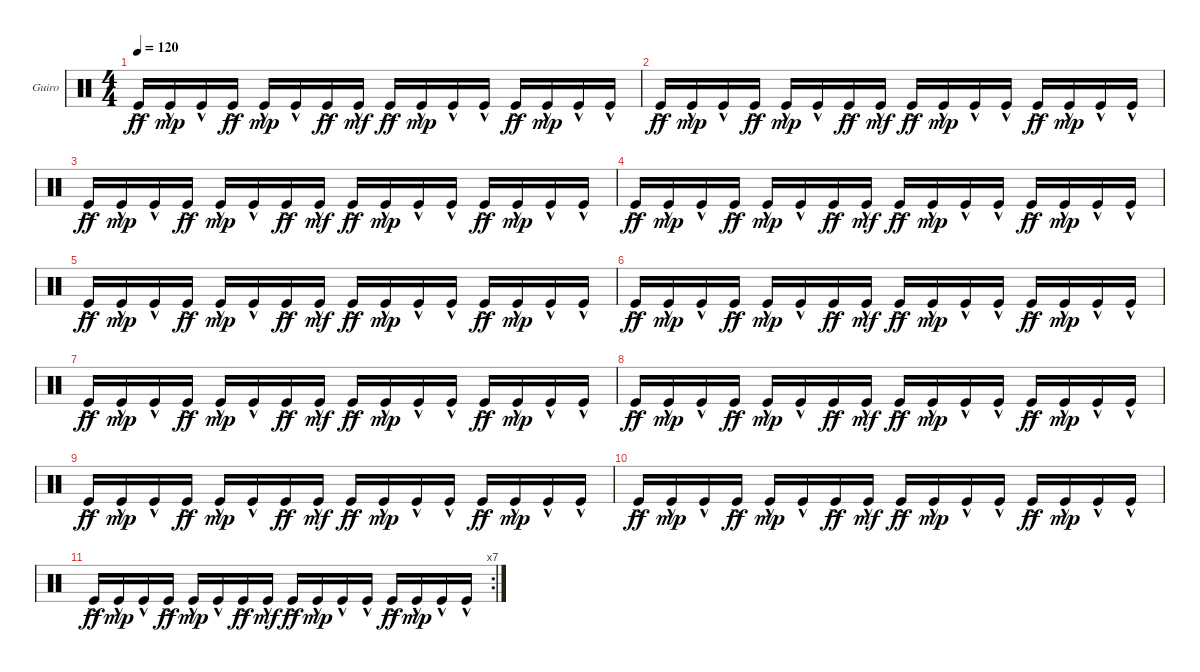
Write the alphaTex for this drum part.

\defaultSystemsLayout 4
\bracketExtendMode groupsimilarinstruments
\firstSystemTrackNameOrientation horizontal
\otherSystemsTrackNameOrientation horizontal
\track ("Guiro" "Guiro") {instrument percussion}
\staff {score}
\articulation defaults
\ts (4 4)
\tempo 120
\clef neutral
\scale
0.333333
\ks c "Kick (hit)"{ac}.16{dy ff} "Kick (hit)"{hac}.16{dy mp} "Kick (hit)"{hac}.16 "Kick (hit)"{ac}.16{dy ff} "Kick (hit)"{hac}.16{dy mp} "Kick (hit)"{hac}.16 "Kick (hit)"{ac}.16{dy ff} "Kick (hit)"{hac}.16{dy mf} "Kick (hit)"{ac}.16{dy ff} "Kick (hit)"{hac}.16{dy mp} "Kick (hit)"{hac}.16 "Kick (hit)"{hac}.16 "Kick (hit)"{ac}.16{dy ff} "Kick (hit)"{hac}.16{dy mp} "Kick (hit)"{hac}.16 "Kick (hit)"{hac}.16
|
\scale
0.333333 "Kick (hit)"{ac}.16{dy ff} "Kick (hit)"{hac}.16{dy mp} "Kick (hit)"{hac}.16 "Kick (hit)"{ac}.16{dy ff} "Kick (hit)"{hac}.16{dy mp} "Kick (hit)"{hac}.16 "Kick (hit)"{ac}.16{dy ff} "Kick (hit)"{hac}.16{dy mf} "Kick (hit)"{ac}.16{dy ff} "Kick (hit)"{hac}.16{dy mp} "Kick (hit)"{hac}.16 "Kick (hit)"{hac}.16 "Kick (hit)"{ac}.16{dy ff} "Kick (hit)"{hac}.16{dy mp} "Kick (hit)"{hac}.16 "Kick (hit)"{hac}.16 |
\scale
0.333333 "Kick (hit)"{ac}.16{dy ff} "Kick (hit)"{hac}.16{dy mp} "Kick (hit)"{hac}.16 "Kick (hit)"{ac}.16{dy ff} "Kick (hit)"{hac}.16{dy mp} "Kick (hit)"{hac}.16 "Kick (hit)"{ac}.16{dy ff} "Kick (hit)"{hac}.16{dy mf} "Kick (hit)"{ac}.16{dy ff} "Kick (hit)"{hac}.16{dy mp} "Kick (hit)"{hac}.16 "Kick (hit)"{hac}.16 "Kick (hit)"{ac}.16{dy ff} "Kick (hit)"{hac}.16{dy mp} "Kick (hit)"{hac}.16 "Kick (hit)"{hac}.16 |
\scale
0.333333 "Kick (hit)"{ac}.16{dy ff} "Kick (hit)"{hac}.16{dy mp} "Kick (hit)"{hac}.16 "Kick (hit)"{ac}.16{dy ff} "Kick (hit)"{hac}.16{dy mp} "Kick (hit)"{hac}.16 "Kick (hit)"{ac}.16{dy ff} "Kick (hit)"{hac}.16{dy mf} "Kick (hit)"{ac}.16{dy ff} "Kick (hit)"{hac}.16{dy mp} "Kick (hit)"{hac}.16 "Kick (hit)"{hac}.16 "Kick (hit)"{ac}.16{dy ff} "Kick (hit)"{hac}.16{dy mp} "Kick (hit)"{hac}.16 "Kick (hit)"{hac}.16 |
\scale
0.333333 "Kick (hit)"{ac}.16{dy ff} "Kick (hit)"{hac}.16{dy mp} "Kick (hit)"{hac}.16 "Kick (hit)"{ac}.16{dy ff} "Kick (hit)"{hac}.16{dy mp} "Kick (hit)"{hac}.16 "Kick (hit)"{ac}.16{dy ff} "Kick (hit)"{hac}.16{dy mf} "Kick (hit)"{ac}.16{dy ff} "Kick (hit)"{hac}.16{dy mp} "Kick (hit)"{hac}.16 "Kick (hit)"{hac}.16 "Kick (hit)"{ac}.16{dy ff} "Kick (hit)"{hac}.16{dy mp} "Kick (hit)"{hac}.16 "Kick (hit)"{hac}.16 |
\scale
0.333333 "Kick (hit)"{ac}.16{dy ff} "Kick (hit)"{hac}.16{dy mp} "Kick (hit)"{hac}.16 "Kick (hit)"{ac}.16{dy ff} "Kick (hit)"{hac}.16{dy mp} "Kick (hit)"{hac}.16 "Kick (hit)"{ac}.16{dy ff} "Kick (hit)"{hac}.16{dy mf} "Kick (hit)"{ac}.16{dy ff} "Kick (hit)"{hac}.16{dy mp} "Kick (hit)"{hac}.16 "Kick (hit)"{hac}.16 "Kick (hit)"{ac}.16{dy ff} "Kick (hit)"{hac}.16{dy mp} "Kick (hit)"{hac}.16 "Kick (hit)"{hac}.16 |
\scale
0.333333 "Kick (hit)"{ac}.16{dy ff} "Kick (hit)"{hac}.16{dy mp} "Kick (hit)"{hac}.16 "Kick (hit)"{ac}.16{dy ff} "Kick (hit)"{hac}.16{dy mp} "Kick (hit)"{hac}.16 "Kick (hit)"{ac}.16{dy ff} "Kick (hit)"{hac}.16{dy mf} "Kick (hit)"{ac}.16{dy ff} "Kick (hit)"{hac}.16{dy mp} "Kick (hit)"{hac}.16 "Kick (hit)"{hac}.16 "Kick (hit)"{ac}.16{dy ff} "Kick (hit)"{hac}.16{dy mp} "Kick (hit)"{hac}.16 "Kick (hit)"{hac}.16 |
\scale
0.333333 "Kick (hit)"{ac}.16{dy ff} "Kick (hit)"{hac}.16{dy mp} "Kick (hit)"{hac}.16 "Kick (hit)"{ac}.16{dy ff} "Kick (hit)"{hac}.16{dy mp} "Kick (hit)"{hac}.16 "Kick (hit)"{ac}.16{dy ff} "Kick (hit)"{hac}.16{dy mf} "Kick (hit)"{ac}.16{dy ff} "Kick (hit)"{hac}.16{dy mp} "Kick (hit)"{hac}.16 "Kick (hit)"{hac}.16 "Kick (hit)"{ac}.16{dy ff} "Kick (hit)"{hac}.16{dy mp} "Kick (hit)"{hac}.16 "Kick (hit)"{hac}.16 |
\scale
0.333333 "Kick (hit)"{ac}.16{dy ff} "Kick (hit)"{hac}.16{dy mp} "Kick (hit)"{hac}.16 "Kick (hit)"{ac}.16{dy ff} "Kick (hit)"{hac}.16{dy mp} "Kick (hit)"{hac}.16 "Kick (hit)"{ac}.16{dy ff} "Kick (hit)"{hac}.16{dy mf} "Kick (hit)"{ac}.16{dy ff} "Kick (hit)"{hac}.16{dy mp} "Kick (hit)"{hac}.16 "Kick (hit)"{hac}.16 "Kick (hit)"{ac}.16{dy ff} "Kick (hit)"{hac}.16{dy mp} "Kick (hit)"{hac}.16 "Kick (hit)"{hac}.16 |
\scale
0.333333 "Kick (hit)"{ac}.16{dy ff} "Kick (hit)"{hac}.16{dy mp} "Kick (hit)"{hac}.16 "Kick (hit)"{ac}.16{dy ff} "Kick (hit)"{hac}.16{dy mp} "Kick (hit)"{hac}.16 "Kick (hit)"{ac}.16{dy ff} "Kick (hit)"{hac}.16{dy mf} "Kick (hit)"{ac}.16{dy ff} "Kick (hit)"{hac}.16{dy mp} "Kick (hit)"{hac}.16 "Kick (hit)"{hac}.16 "Kick (hit)"{ac}.16{dy ff} "Kick (hit)"{hac}.16{dy mp} "Kick (hit)"{hac}.16 "Kick (hit)"{hac}.16 |
\rc 7 "Kick (hit)"{ac}.16{dy ff} "Kick (hit)"{hac}.16{dy mp} "Kick (hit)"{hac}.16 "Kick (hit)"{ac}.16{dy ff} "Kick (hit)"{hac}.16{dy mp} "Kick (hit)"{hac}.16 "Kick (hit)"{ac}.16{dy ff} "Kick (hit)"{hac}.16{dy mf} "Kick (hit)"{ac}.16{dy ff} "Kick (hit)"{hac}.16{dy mp} "Kick (hit)"{hac}.16 "Kick (hit)"{hac}.16 "Kick (hit)"{ac}.16{dy ff} "Kick (hit)"{hac}.16{dy mp} "Kick (hit)"{hac}.16 "Kick (hit)"{hac}.16
